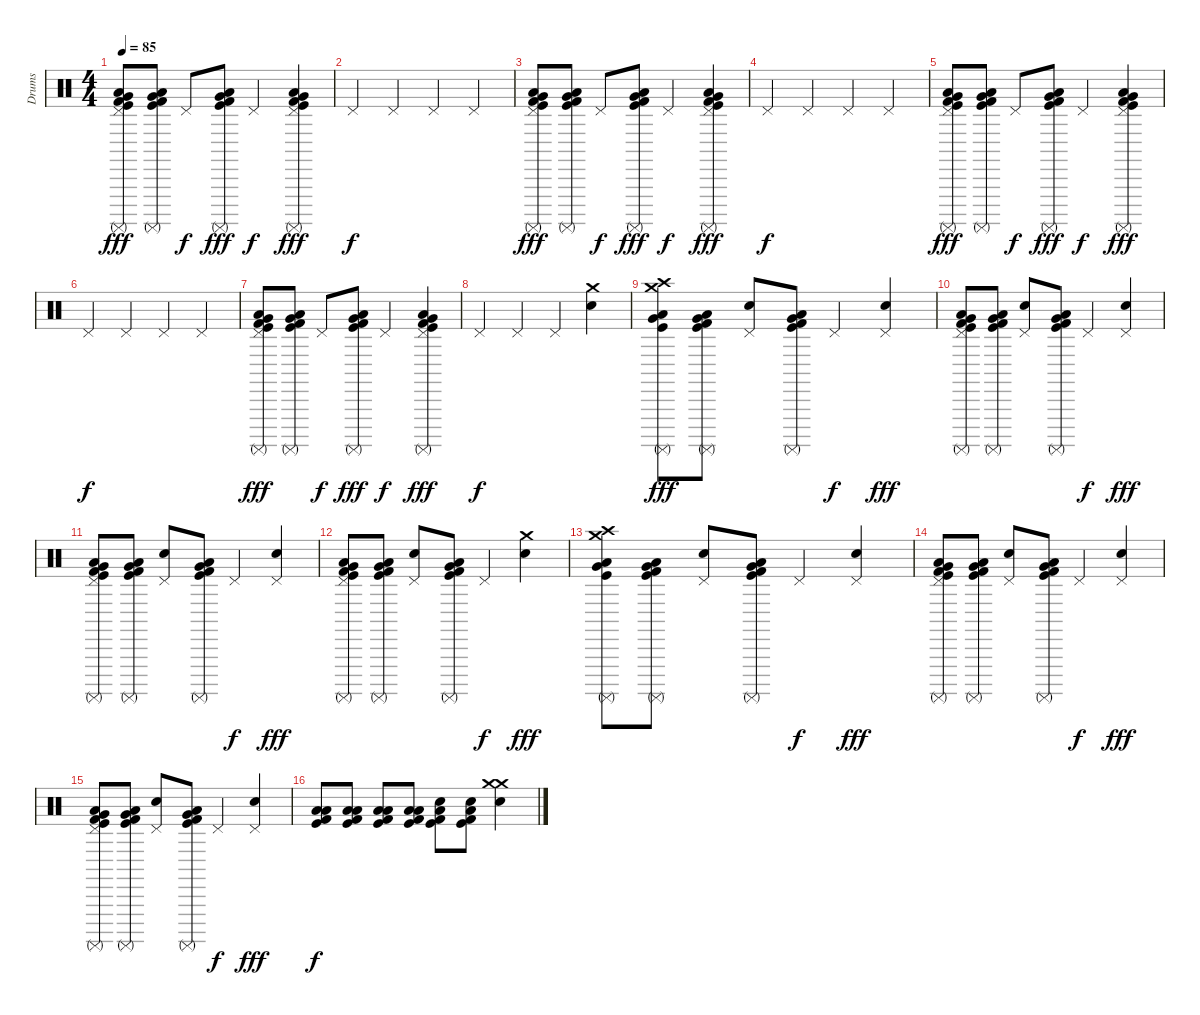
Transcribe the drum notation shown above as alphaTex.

\track ("Drums" "Drums") {instrument percussion}
\staff {score}
\articulation defaults
\ts (4 4)
\tempo 85
\clef neutral
\ks c
("Pedal Hi-Hat (hit)" "Low Floor Tom (hit)" "Very Low Tom (hit)" "Surdo (mute)" "Kick (hit) 2" "Kick (hit)").8{dy fff volume 16} ("Low Floor Tom (hit)" "Very Low Tom (hit)" "Surdo (mute)" "Kick (hit) 2" "Kick (hit)").8 "Pedal Hi-Hat (hit)".8{dy f} ("Low Floor Tom (hit)" "Very Low Tom (hit)" "Surdo (mute)" "Kick (hit) 2" "Kick (hit)").8{dy fff} "Pedal Hi-Hat (hit)".4{dy f} ("Pedal Hi-Hat (hit)" "Low Floor Tom (hit)" "Very Low Tom (hit)" "Surdo (mute)" "Kick (hit) 2" "Kick (hit)").4{dy fff} |
"Pedal Hi-Hat (hit)".4{dy f} "Pedal Hi-Hat (hit)".4 "Pedal Hi-Hat (hit)".4 "Pedal Hi-Hat (hit)".4 |
("Pedal Hi-Hat (hit)" "Low Floor Tom (hit)" "Very Low Tom (hit)" "Surdo (mute)" "Kick (hit) 2" "Kick (hit)").8{dy fff} ("Low Floor Tom (hit)" "Very Low Tom (hit)" "Surdo (mute)" "Kick (hit) 2" "Kick (hit)").8 "Pedal Hi-Hat (hit)".8{dy f} ("Low Floor Tom (hit)" "Very Low Tom (hit)" "Surdo (mute)" "Kick (hit) 2" "Kick (hit)").8{dy fff} "Pedal Hi-Hat (hit)".4{dy f} ("Pedal Hi-Hat (hit)" "Low Floor Tom (hit)" "Very Low Tom (hit)" "Surdo (mute)" "Kick (hit) 2" "Kick (hit)").4{dy fff} |
"Pedal Hi-Hat (hit)".4{dy f} "Pedal Hi-Hat (hit)".4 "Pedal Hi-Hat (hit)".4 "Pedal Hi-Hat (hit)".4 |
("Pedal Hi-Hat (hit)" "Low Floor Tom (hit)" "Very Low Tom (hit)" "Surdo (mute)" "Kick (hit) 2" "Kick (hit)").8{dy fff} ("Low Floor Tom (hit)" "Very Low Tom (hit)" "Surdo (mute)" "Kick (hit) 2" "Kick (hit)").8 "Pedal Hi-Hat (hit)".8{dy f} ("Low Floor Tom (hit)" "Very Low Tom (hit)" "Surdo (mute)" "Kick (hit) 2" "Kick (hit)").8{dy fff} "Pedal Hi-Hat (hit)".4{dy f} ("Pedal Hi-Hat (hit)" "Low Floor Tom (hit)" "Very Low Tom (hit)" "Surdo (mute)" "Kick (hit) 2" "Kick (hit)").4{dy fff} |
"Pedal Hi-Hat (hit)".4{dy f} "Pedal Hi-Hat (hit)".4 "Pedal Hi-Hat (hit)".4 "Pedal Hi-Hat (hit)".4 |
("Pedal Hi-Hat (hit)" "Low Floor Tom (hit)" "Very Low Tom (hit)" "Surdo (mute)" "Kick (hit) 2" "Kick (hit)").8{dy fff} ("Low Floor Tom (hit)" "Very Low Tom (hit)" "Surdo (mute)" "Kick (hit) 2" "Kick (hit)").8 "Pedal Hi-Hat (hit)".8{dy f} ("Low Floor Tom (hit)" "Very Low Tom (hit)" "Surdo (mute)" "Kick (hit) 2" "Kick (hit)").8{dy fff} "Pedal Hi-Hat (hit)".4{dy f} ("Pedal Hi-Hat (hit)" "Low Floor Tom (hit)" "Very Low Tom (hit)" "Surdo (mute)" "Kick (hit) 2" "Kick (hit)").4{dy fff} |
"Pedal Hi-Hat (hit)".4{dy f} "Pedal Hi-Hat (hit)".4 "Pedal Hi-Hat (hit)".4 ("Crash medium (hit)" "Snare (hit) 2").4 |
("Crash high (hit)" "Low Floor Tom (hit)" "Very Low Tom (hit)" "Surdo (mute)" "Crash medium (hit)" "Kick (hit)").8{dy fff} ("Low Floor Tom (hit)" "Very Low Tom (hit)" "Surdo (mute)" "Kick (hit) 2" "Kick (hit)").8 ("Pedal Hi-Hat (hit)" "Snare (hit) 2").8 ("Low Floor Tom (hit)" "Very Low Tom (hit)" "Surdo (mute)" "Kick (hit) 2" "Kick (hit)").8 "Pedal Hi-Hat (hit)".4{dy f} ("Pedal Hi-Hat (hit)" "Snare (hit) 2").4{dy fff} |
("Pedal Hi-Hat (hit)" "Low Floor Tom (hit)" "Very Low Tom (hit)" "Surdo (mute)" "Kick (hit) 2" "Kick (hit)").8 ("Low Floor Tom (hit)" "Very Low Tom (hit)" "Surdo (mute)" "Kick (hit) 2" "Kick (hit)").8 ("Pedal Hi-Hat (hit)" "Snare (hit) 2").8 ("Low Floor Tom (hit)" "Very Low Tom (hit)" "Surdo (mute)" "Kick (hit) 2" "Kick (hit)").8 "Pedal Hi-Hat (hit)".4{dy f} ("Pedal Hi-Hat (hit)" "Snare (hit) 2").4{dy fff} |
("Pedal Hi-Hat (hit)" "Low Floor Tom (hit)" "Very Low Tom (hit)" "Surdo (mute)" "Kick (hit) 2" "Kick (hit)").8 ("Low Floor Tom (hit)" "Very Low Tom (hit)" "Surdo (mute)" "Kick (hit) 2" "Kick (hit)").8 ("Pedal Hi-Hat (hit)" "Snare (hit) 2").8 ("Low Floor Tom (hit)" "Very Low Tom (hit)" "Surdo (mute)" "Kick (hit) 2" "Kick (hit)").8 "Pedal Hi-Hat (hit)".4{dy f} ("Pedal Hi-Hat (hit)" "Snare (hit) 2").4{dy fff} |
("Pedal Hi-Hat (hit)" "Low Floor Tom (hit)" "Very Low Tom (hit)" "Surdo (mute)" "Kick (hit) 2" "Kick (hit)").8 ("Low Floor Tom (hit)" "Very Low Tom (hit)" "Surdo (mute)" "Kick (hit) 2" "Kick (hit)").8 ("Pedal Hi-Hat (hit)" "Snare (hit) 2").8 ("Low Floor Tom (hit)" "Very Low Tom (hit)" "Surdo (mute)" "Kick (hit) 2" "Kick (hit)").8 "Pedal Hi-Hat (hit)".4{dy f} ("Crash medium (hit)" "Snare (hit) 2").4{dy fff} |
("Crash high (hit)" "Low Floor Tom (hit)" "Very Low Tom (hit)" "Surdo (mute)" "Crash medium (hit)" "Kick (hit)").8 ("Low Floor Tom (hit)" "Very Low Tom (hit)" "Surdo (mute)" "Kick (hit) 2" "Kick (hit)").8 ("Pedal Hi-Hat (hit)" "Snare (hit) 2").8 ("Low Floor Tom (hit)" "Very Low Tom (hit)" "Surdo (mute)" "Kick (hit) 2" "Kick (hit)").8 "Pedal Hi-Hat (hit)".4{dy f} ("Pedal Hi-Hat (hit)" "Snare (hit) 2").4{dy fff} |
("Pedal Hi-Hat (hit)" "Low Floor Tom (hit)" "Very Low Tom (hit)" "Surdo (mute)" "Kick (hit) 2" "Kick (hit)").8 ("Low Floor Tom (hit)" "Very Low Tom (hit)" "Surdo (mute)" "Kick (hit) 2" "Kick (hit)").8 ("Pedal Hi-Hat (hit)" "Snare (hit) 2").8 ("Low Floor Tom (hit)" "Very Low Tom (hit)" "Surdo (mute)" "Kick (hit) 2" "Kick (hit)").8 "Pedal Hi-Hat (hit)".4{dy f} ("Pedal Hi-Hat (hit)" "Snare (hit) 2").4{dy fff} |
("Pedal Hi-Hat (hit)" "Low Floor Tom (hit)" "Very Low Tom (hit)" "Surdo (mute)" "Kick (hit) 2" "Kick (hit)").8 ("Low Floor Tom (hit)" "Very Low Tom (hit)" "Surdo (mute)" "Kick (hit) 2" "Kick (hit)").8 ("Pedal Hi-Hat (hit)" "Snare (hit) 2").8 ("Low Floor Tom (hit)" "Very Low Tom (hit)" "Surdo (mute)" "Kick (hit) 2" "Kick (hit)").8 "Pedal Hi-Hat (hit)".4{dy f} ("Pedal Hi-Hat (hit)" "Snare (hit) 2").4{dy fff} |
("Low Floor Tom (hit)" "Low Tom (hit)" "Kick (hit) 2" "Kick (hit)").8{dy f} ("Low Floor Tom (hit)" "Low Tom (hit)" "Kick (hit) 2" "Kick (hit)").8 ("Low Floor Tom (hit)" "Low Tom (hit)" "Kick (hit) 2" "Kick (hit)").8 ("Low Floor Tom (hit)" "Low Tom (hit)" "Kick (hit) 2" "Kick (hit)").8 ("Low Floor Tom (hit)" "Snare (hit) 2" "Kick (hit) 2" "Kick (hit)").8 ("Low Floor Tom (hit)" "Snare (hit) 2" "Kick (hit) 2" "Kick (hit)").8 ("Crash medium (hit)" "Crash medium (hit)" "Snare (hit) 2").4
